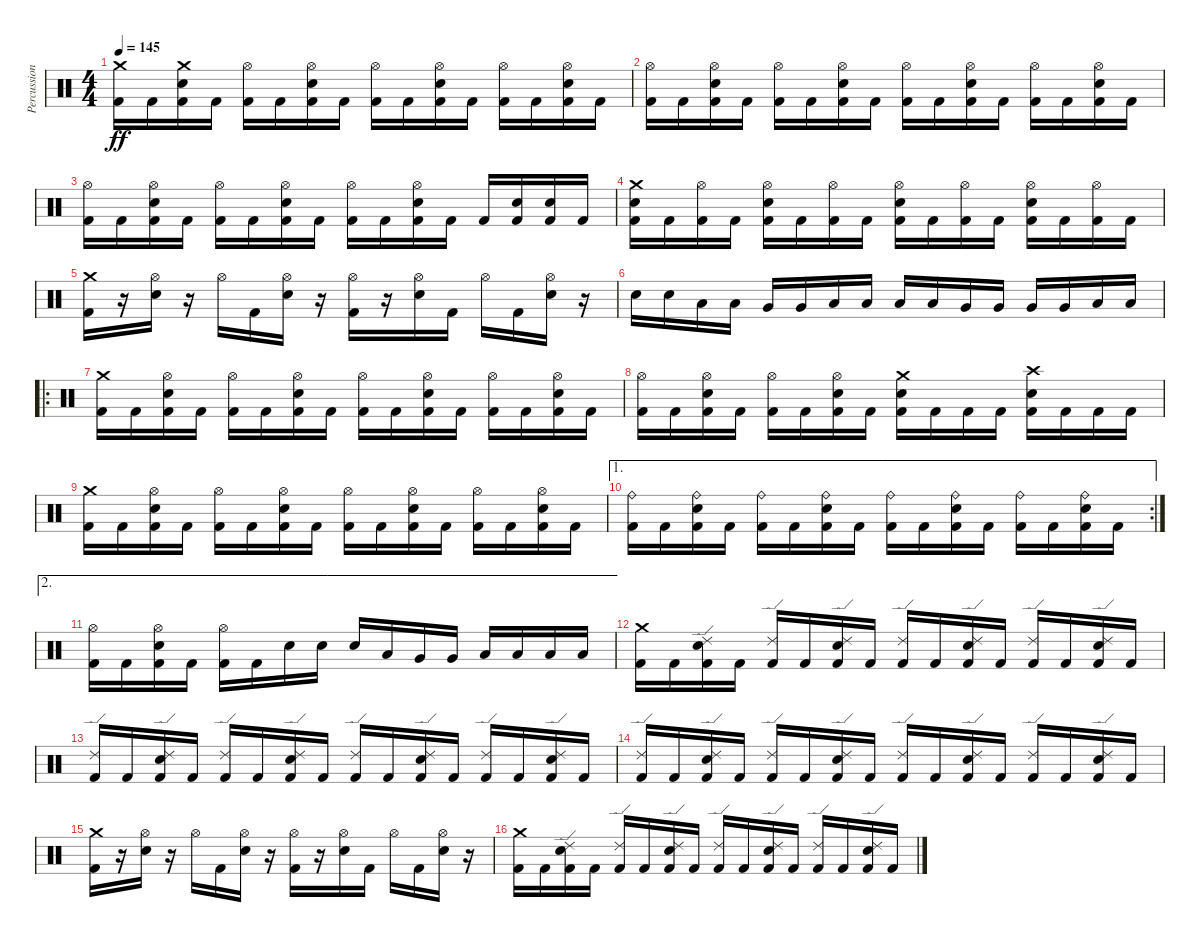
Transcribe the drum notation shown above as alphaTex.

\track ("Percussion" "Percussion") {instrument percussion}
\staff {score}
\articulation defaults
\ts (4 4)
\tempo 145
\clef neutral
\ks c
("Crash medium (hit)" "Kick (hit) 2").16{dy ff} "Kick (hit) 2".16 ("Electric Snare (hit)" "Crash medium (hit)" "Kick (hit) 2").16 "Kick (hit) 2".16 ("Hi-Hat (open)" "Kick (hit) 2").16 "Kick (hit) 2".16 ("Electric Snare (hit)" "Hi-Hat (open)" "Kick (hit) 2").16 "Kick (hit) 2".16 ("Hi-Hat (open)" "Kick (hit) 2").16 "Kick (hit) 2".16 ("Electric Snare (hit)" "Hi-Hat (open)" "Kick (hit) 2").16 "Kick (hit) 2".16 ("Hi-Hat (open)" "Kick (hit) 2").16 "Kick (hit) 2".16 ("Electric Snare (hit)" "Hi-Hat (open)" "Kick (hit) 2").16 "Kick (hit) 2".16 |
("Hi-Hat (open)" "Kick (hit) 2").16 "Kick (hit) 2".16 ("Electric Snare (hit)" "Hi-Hat (open)" "Kick (hit) 2").16 "Kick (hit) 2".16 ("Hi-Hat (open)" "Kick (hit) 2").16 "Kick (hit) 2".16 ("Electric Snare (hit)" "Hi-Hat (open)" "Kick (hit) 2").16 "Kick (hit) 2".16 ("Hi-Hat (open)" "Kick (hit) 2").16 "Kick (hit) 2".16 ("Electric Snare (hit)" "Hi-Hat (open)" "Kick (hit) 2").16 "Kick (hit) 2".16 ("Hi-Hat (open)" "Kick (hit) 2").16 "Kick (hit) 2".16 ("Electric Snare (hit)" "Hi-Hat (open)" "Kick (hit) 2").16 "Kick (hit) 2".16 |
("Hi-Hat (open)" "Kick (hit) 2").16 "Kick (hit) 2".16 ("Electric Snare (hit)" "Hi-Hat (open)" "Kick (hit) 2").16 "Kick (hit) 2".16 ("Hi-Hat (open)" "Kick (hit) 2").16 "Kick (hit) 2".16 ("Electric Snare (hit)" "Hi-Hat (open)" "Kick (hit) 2").16 "Kick (hit) 2".16 ("Hi-Hat (open)" "Kick (hit) 2").16 "Kick (hit) 2".16 ("Electric Snare (hit)" "Hi-Hat (open)" "Kick (hit) 2").16 "Kick (hit) 2".16 "Kick (hit) 2".16 ("Electric Snare (hit)" "Kick (hit) 2").16 ("Electric Snare (hit)" "Kick (hit) 2").16 "Kick (hit) 2".16 |
("Crash medium (hit)" "Electric Snare (hit)" "Kick (hit) 2").16 "Kick (hit) 2".16 ("Hi-Hat (open)" "Kick (hit) 2").16 "Kick (hit) 2".16 ("Hi-Hat (open)" "Electric Snare (hit)" "Kick (hit) 2").16 "Kick (hit) 2".16 ("Hi-Hat (open)" "Kick (hit) 2").16 "Kick (hit) 2".16 ("Hi-Hat (open)" "Electric Snare (hit)" "Kick (hit) 2").16 "Kick (hit) 2".16 ("Hi-Hat (open)" "Kick (hit) 2").16 "Kick (hit) 2".16 ("Hi-Hat (open)" "Electric Snare (hit)" "Kick (hit) 2").16 "Kick (hit) 2".16 ("Hi-Hat (open)" "Kick (hit) 2").16 "Kick (hit) 2".16 |
("Crash medium (hit)" "Kick (hit) 2").16 r.16 ("Hi-Hat (open)" "Electric Snare (hit)").16 r.16 "Hi-Hat (open)".16 "Kick (hit) 2".16 ("Hi-Hat (open)" "Electric Snare (hit)").16 r.16 ("Hi-Hat (open)" "Kick (hit) 2").16 r.16 ("Hi-Hat (open)" "Electric Snare (hit)").16 "Kick (hit) 2".16 "Hi-Hat (open)".16 "Kick (hit) 2".16 ("Hi-Hat (open)" "Electric Snare (hit)").16 r.16 |
"Snare (hit) 2".16 "Snare (hit) 2".16 "Low Tom (hit)".16 "Low Tom (hit)".16 "Very Low Tom (hit)".16 "Very Low Tom (hit)".16 "Low Tom (hit)".16 "Low Tom (hit)".16 "Low Tom (hit)".16 "Low Tom (hit)".16 "Very Low Tom (hit)".16 "Very Low Tom (hit)".16 "Very Low Tom (hit)".16 "Very Low Tom (hit)".16 "Low Floor Tom (hit)".16 "Low Floor Tom (hit)".16 |
\ro
("Crash medium (hit)" "Kick (hit) 2").16 "Kick (hit) 2".16 ("Electric Snare (hit)" "Hi-Hat (open)" "Kick (hit) 2").16 "Kick (hit) 2".16 ("Hi-Hat (open)" "Kick (hit) 2").16 "Kick (hit) 2".16 ("Electric Snare (hit)" "Hi-Hat (open)" "Kick (hit) 2").16 "Kick (hit) 2".16 ("Hi-Hat (open)" "Kick (hit) 2").16 "Kick (hit) 2".16 ("Electric Snare (hit)" "Hi-Hat (open)" "Kick (hit) 2").16 "Kick (hit) 2".16 ("Hi-Hat (open)" "Kick (hit) 2").16 "Kick (hit) 2".16 ("Electric Snare (hit)" "Hi-Hat (open)" "Kick (hit) 2").16 "Kick (hit) 2".16 |
("Hi-Hat (open)" "Kick (hit) 2").16 "Kick (hit) 2".16 ("Electric Snare (hit)" "Hi-Hat (open)" "Kick (hit) 2").16 "Kick (hit) 2".16 ("Hi-Hat (open)" "Kick (hit) 2").16 "Kick (hit) 2".16 ("Electric Snare (hit)" "Hi-Hat (open)" "Kick (hit) 2").16 "Kick (hit) 2".16 ("Electric Snare (hit)" "Crash medium (hit)" "Kick (hit) 2").16 "Kick (hit) 2".16 "Kick (hit) 2".16 "Kick (hit) 2".16 ("Electric Snare (hit)" "Crash high (hit)" "Kick (hit) 2").16 "Kick (hit) 2".16 "Kick (hit) 2".16 "Kick (hit) 2".16 |
("Crash medium (hit)" "Kick (hit) 2").16 "Kick (hit) 2".16 ("Electric Snare (hit)" "Hi-Hat (open)" "Kick (hit) 2").16 "Kick (hit) 2".16 ("Hi-Hat (open)" "Kick (hit) 2").16 "Kick (hit) 2".16 ("Electric Snare (hit)" "Hi-Hat (open)" "Kick (hit) 2").16 "Kick (hit) 2".16 ("Hi-Hat (open)" "Kick (hit) 2").16 "Kick (hit) 2".16 ("Electric Snare (hit)" "Hi-Hat (open)" "Kick (hit) 2").16 "Kick (hit) 2".16 ("Hi-Hat (open)" "Kick (hit) 2").16 "Kick (hit) 2".16 ("Electric Snare (hit)" "Hi-Hat (open)" "Kick (hit) 2").16 "Kick (hit) 2".16 |
\ae 1
\rc 2
("Ride (bell)" "Kick (hit) 2").16 "Kick (hit) 2".16 ("Electric Snare (hit)" "Ride (bell)" "Kick (hit) 2").16 "Kick (hit) 2".16 ("Ride (bell)" "Kick (hit) 2").16 "Kick (hit) 2".16 ("Electric Snare (hit)" "Ride (bell)" "Kick (hit) 2").16 "Kick (hit) 2".16 ("Ride (bell)" "Kick (hit) 2").16 "Kick (hit) 2".16 ("Electric Snare (hit)" "Ride (bell)" "Kick (hit) 2").16 "Kick (hit) 2".16 ("Ride (bell)" "Kick (hit) 2").16 "Kick (hit) 2".16 ("Electric Snare (hit)" "Ride (bell)" "Kick (hit) 2").16 "Kick (hit) 2".16 |
\ae 2
("Hi-Hat (open)" "Kick (hit) 2").16 "Kick (hit) 2".16 ("Electric Snare (hit)" "Hi-Hat (open)" "Kick (hit) 2").16 "Kick (hit) 2".16 ("Hi-Hat (open)" "Kick (hit) 2").16 "Kick (hit) 2".16 "Electric Snare (hit)".16 "Electric Snare (hit)".16 "Electric Snare (hit)".16 "Low Tom (hit)".16 "Very Low Tom (hit)".16 "Very Low Tom (hit)".16 "Low Floor Tom (hit)".16 "Low Floor Tom (hit)".16 "Low Floor Tom (hit)".16 "Low Floor Tom (hit)".16 |
("Crash medium (hit)" "Kick (hit) 2").16 "Kick (hit) 2".16 ("Electric Snare (hit)" "Ride (edge) 2" "Kick (hit) 2").16 "Kick (hit) 2".16 ("Ride (edge) 2" "Kick (hit) 2").16 "Kick (hit) 2".16 ("Electric Snare (hit)" "Ride (edge) 2" "Kick (hit) 2").16 "Kick (hit) 2".16 ("Ride (edge) 2" "Kick (hit) 2").16 "Kick (hit) 2".16 ("Electric Snare (hit)" "Ride (edge) 2" "Kick (hit) 2").16 "Kick (hit) 2".16 ("Ride (edge) 2" "Kick (hit) 2").16 "Kick (hit) 2".16 ("Electric Snare (hit)" "Ride (edge) 2" "Kick (hit) 2").16 "Kick (hit) 2".16 |
("Ride (edge) 2" "Kick (hit) 2").16 "Kick (hit) 2".16 ("Electric Snare (hit)" "Ride (edge) 2" "Kick (hit) 2").16 "Kick (hit) 2".16 ("Ride (edge) 2" "Kick (hit) 2").16 "Kick (hit) 2".16 ("Electric Snare (hit)" "Ride (edge) 2" "Kick (hit) 2").16 "Kick (hit) 2".16 ("Ride (edge) 2" "Kick (hit) 2").16 "Kick (hit) 2".16 ("Electric Snare (hit)" "Ride (edge) 2" "Kick (hit) 2").16 "Kick (hit) 2".16 ("Ride (edge) 2" "Kick (hit) 2").16 "Kick (hit) 2".16 ("Electric Snare (hit)" "Ride (edge) 2" "Kick (hit) 2").16 "Kick (hit) 2".16 |
("Ride (edge) 2" "Kick (hit) 2").16 "Kick (hit) 2".16 ("Electric Snare (hit)" "Ride (edge) 2" "Kick (hit) 2").16 "Kick (hit) 2".16 ("Ride (edge) 2" "Kick (hit) 2").16 "Kick (hit) 2".16 ("Electric Snare (hit)" "Ride (edge) 2" "Kick (hit) 2").16 "Kick (hit) 2".16 ("Ride (edge) 2" "Kick (hit) 2").16 "Kick (hit) 2".16 ("Electric Snare (hit)" "Ride (edge) 2" "Kick (hit) 2").16 "Kick (hit) 2".16 ("Ride (edge) 2" "Kick (hit) 2").16 "Kick (hit) 2".16 ("Electric Snare (hit)" "Ride (edge) 2" "Kick (hit) 2").16 "Kick (hit) 2".16 |
("Crash medium (hit)" "Kick (hit) 2").16 r.16 ("Hi-Hat (open)" "Electric Snare (hit)").16 r.16 "Hi-Hat (open)".16 "Kick (hit) 2".16 ("Hi-Hat (open)" "Electric Snare (hit)").16 r.16 ("Hi-Hat (open)" "Kick (hit) 2").16 r.16 ("Hi-Hat (open)" "Electric Snare (hit)").16 "Kick (hit) 2".16 "Hi-Hat (open)".16 "Kick (hit) 2".16 ("Hi-Hat (open)" "Electric Snare (hit)").16 r.16 |
("Crash medium (hit)" "Kick (hit) 2").16 "Kick (hit) 2".16 ("Electric Snare (hit)" "Ride (edge) 2" "Kick (hit) 2").16 "Kick (hit) 2".16 ("Ride (edge) 2" "Kick (hit) 2").16 "Kick (hit) 2".16 ("Electric Snare (hit)" "Ride (edge) 2" "Kick (hit) 2").16 "Kick (hit) 2".16 ("Ride (edge) 2" "Kick (hit) 2").16 "Kick (hit) 2".16 ("Electric Snare (hit)" "Ride (edge) 2" "Kick (hit) 2").16 "Kick (hit) 2".16 ("Ride (edge) 2" "Kick (hit) 2").16 "Kick (hit) 2".16 ("Electric Snare (hit)" "Ride (edge) 2" "Kick (hit) 2").16 "Kick (hit) 2".16
